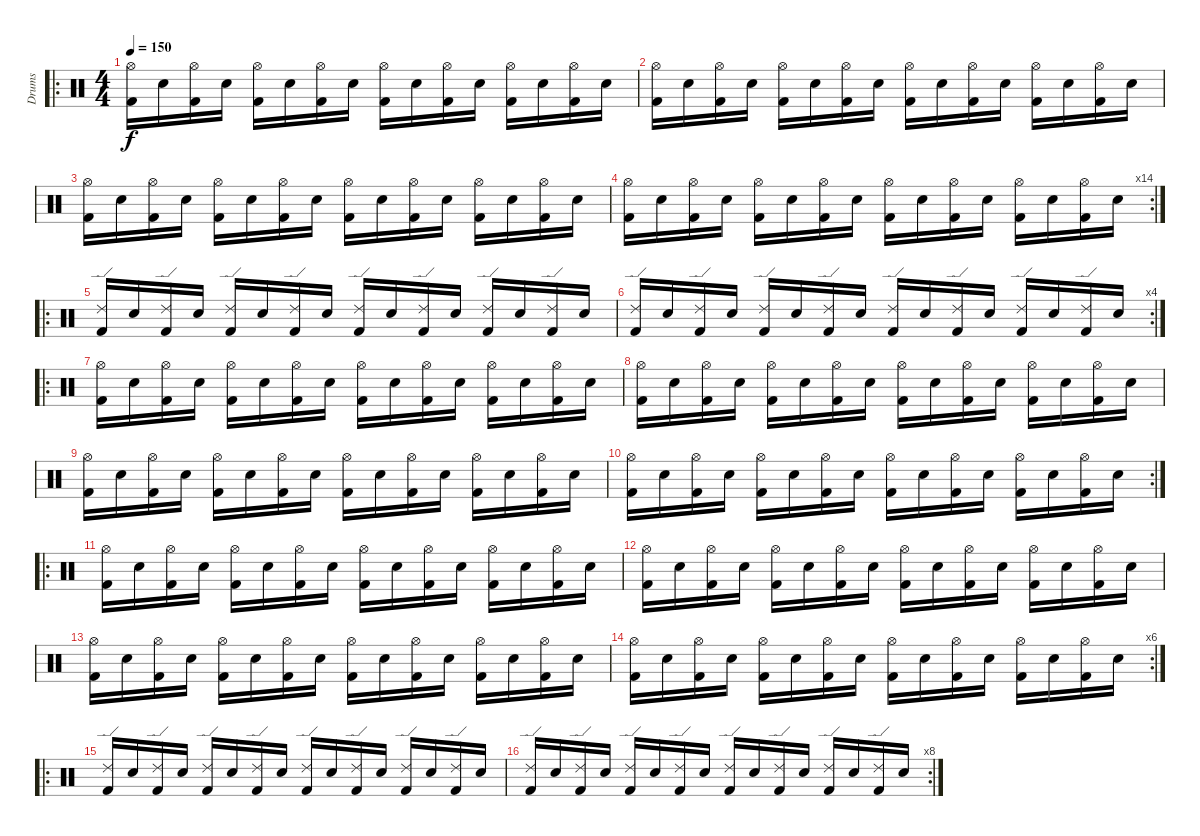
\track ("Drums" "Drums") {instrument percussion}
\staff {score}
\articulation defaults
\ro
\ts (4 4)
\tempo 150
\clef neutral
\ks c
("Hi-Hat (open)" "Kick (hit) 2").16{dy f} "Electric Snare (hit)".16 ("Hi-Hat (open)" "Kick (hit) 2").16 "Electric Snare (hit)".16 ("Hi-Hat (open)" "Kick (hit) 2").16 "Electric Snare (hit)".16 ("Hi-Hat (open)" "Kick (hit) 2").16 "Electric Snare (hit)".16 ("Hi-Hat (open)" "Kick (hit) 2").16 "Electric Snare (hit)".16 ("Hi-Hat (open)" "Kick (hit) 2").16 "Electric Snare (hit)".16 ("Hi-Hat (open)" "Kick (hit) 2").16 "Electric Snare (hit)".16 ("Hi-Hat (open)" "Kick (hit) 2").16 "Electric Snare (hit)".16 |
("Hi-Hat (open)" "Kick (hit) 2").16 "Electric Snare (hit)".16 ("Hi-Hat (open)" "Kick (hit) 2").16 "Electric Snare (hit)".16 ("Hi-Hat (open)" "Kick (hit) 2").16 "Electric Snare (hit)".16 ("Hi-Hat (open)" "Kick (hit) 2").16 "Electric Snare (hit)".16 ("Hi-Hat (open)" "Kick (hit) 2").16 "Electric Snare (hit)".16 ("Hi-Hat (open)" "Kick (hit) 2").16 "Electric Snare (hit)".16 ("Hi-Hat (open)" "Kick (hit) 2").16 "Electric Snare (hit)".16 ("Hi-Hat (open)" "Kick (hit) 2").16 "Electric Snare (hit)".16 |
("Hi-Hat (open)" "Kick (hit) 2").16 "Electric Snare (hit)".16 ("Hi-Hat (open)" "Kick (hit) 2").16 "Electric Snare (hit)".16 ("Hi-Hat (open)" "Kick (hit) 2").16 "Electric Snare (hit)".16 ("Hi-Hat (open)" "Kick (hit) 2").16 "Electric Snare (hit)".16 ("Hi-Hat (open)" "Kick (hit) 2").16 "Electric Snare (hit)".16 ("Hi-Hat (open)" "Kick (hit) 2").16 "Electric Snare (hit)".16 ("Hi-Hat (open)" "Kick (hit) 2").16 "Electric Snare (hit)".16 ("Hi-Hat (open)" "Kick (hit) 2").16 "Electric Snare (hit)".16 |
\rc 14
("Hi-Hat (open)" "Kick (hit) 2").16 "Electric Snare (hit)".16 ("Hi-Hat (open)" "Kick (hit) 2").16 "Electric Snare (hit)".16 ("Hi-Hat (open)" "Kick (hit) 2").16 "Electric Snare (hit)".16 ("Hi-Hat (open)" "Kick (hit) 2").16 "Electric Snare (hit)".16 ("Hi-Hat (open)" "Kick (hit) 2").16 "Electric Snare (hit)".16 ("Hi-Hat (open)" "Kick (hit) 2").16 "Electric Snare (hit)".16 ("Hi-Hat (open)" "Kick (hit) 2").16 "Electric Snare (hit)".16 ("Hi-Hat (open)" "Kick (hit) 2").16 "Electric Snare (hit)".16 |
\ro
("Ride (edge) 2" "Kick (hit) 2").16 "Electric Snare (hit)".16 ("Ride (edge) 2" "Kick (hit) 2").16 "Electric Snare (hit)".16 ("Ride (edge) 2" "Kick (hit) 2").16 "Electric Snare (hit)".16 ("Ride (edge) 2" "Kick (hit) 2").16 "Electric Snare (hit)".16 ("Ride (edge) 2" "Kick (hit) 2").16 "Electric Snare (hit)".16 ("Ride (edge) 2" "Kick (hit) 2").16 "Electric Snare (hit)".16 ("Ride (edge) 2" "Kick (hit) 2").16 "Electric Snare (hit)".16 ("Ride (edge) 2" "Kick (hit) 2").16 "Electric Snare (hit)".16 |
\rc 4
("Ride (edge) 2" "Kick (hit) 2").16 "Electric Snare (hit)".16 ("Ride (edge) 2" "Kick (hit) 2").16 "Electric Snare (hit)".16 ("Ride (edge) 2" "Kick (hit) 2").16 "Electric Snare (hit)".16 ("Ride (edge) 2" "Kick (hit) 2").16 "Electric Snare (hit)".16 ("Ride (edge) 2" "Kick (hit) 2").16 "Electric Snare (hit)".16 ("Ride (edge) 2" "Kick (hit) 2").16 "Electric Snare (hit)".16 ("Ride (edge) 2" "Kick (hit) 2").16 "Electric Snare (hit)".16 ("Ride (edge) 2" "Kick (hit) 2").16 "Electric Snare (hit)".16 |
\ro
("Hi-Hat (open)" "Kick (hit) 2").16 "Electric Snare (hit)".16 ("Hi-Hat (open)" "Kick (hit) 2").16 "Electric Snare (hit)".16 ("Hi-Hat (open)" "Kick (hit) 2").16 "Electric Snare (hit)".16 ("Hi-Hat (open)" "Kick (hit) 2").16 "Electric Snare (hit)".16 ("Hi-Hat (open)" "Kick (hit) 2").16 "Electric Snare (hit)".16 ("Hi-Hat (open)" "Kick (hit) 2").16 "Electric Snare (hit)".16 ("Hi-Hat (open)" "Kick (hit) 2").16 "Electric Snare (hit)".16 ("Hi-Hat (open)" "Kick (hit) 2").16 "Electric Snare (hit)".16 |
("Hi-Hat (open)" "Kick (hit) 2").16 "Electric Snare (hit)".16 ("Hi-Hat (open)" "Kick (hit) 2").16 "Electric Snare (hit)".16 ("Hi-Hat (open)" "Kick (hit) 2").16 "Electric Snare (hit)".16 ("Hi-Hat (open)" "Kick (hit) 2").16 "Electric Snare (hit)".16 ("Hi-Hat (open)" "Kick (hit) 2").16 "Electric Snare (hit)".16 ("Hi-Hat (open)" "Kick (hit) 2").16 "Electric Snare (hit)".16 ("Hi-Hat (open)" "Kick (hit) 2").16 "Electric Snare (hit)".16 ("Hi-Hat (open)" "Kick (hit) 2").16 "Electric Snare (hit)".16 |
("Hi-Hat (open)" "Kick (hit) 2").16 "Electric Snare (hit)".16 ("Hi-Hat (open)" "Kick (hit) 2").16 "Electric Snare (hit)".16 ("Hi-Hat (open)" "Kick (hit) 2").16 "Electric Snare (hit)".16 ("Hi-Hat (open)" "Kick (hit) 2").16 "Electric Snare (hit)".16 ("Hi-Hat (open)" "Kick (hit) 2").16 "Electric Snare (hit)".16 ("Hi-Hat (open)" "Kick (hit) 2").16 "Electric Snare (hit)".16 ("Hi-Hat (open)" "Kick (hit) 2").16 "Electric Snare (hit)".16 ("Hi-Hat (open)" "Kick (hit) 2").16 "Electric Snare (hit)".16 |
\rc 2
("Hi-Hat (open)" "Kick (hit) 2").16 "Electric Snare (hit)".16 ("Hi-Hat (open)" "Kick (hit) 2").16 "Electric Snare (hit)".16 ("Hi-Hat (open)" "Kick (hit) 2").16 "Electric Snare (hit)".16 ("Hi-Hat (open)" "Kick (hit) 2").16 "Electric Snare (hit)".16 ("Hi-Hat (open)" "Kick (hit) 2").16 "Electric Snare (hit)".16 ("Hi-Hat (open)" "Kick (hit) 2").16 "Electric Snare (hit)".16 ("Hi-Hat (open)" "Kick (hit) 2").16 "Electric Snare (hit)".16 ("Hi-Hat (open)" "Kick (hit) 2").16 "Electric Snare (hit)".16 |
\ro
("Hi-Hat (open)" "Kick (hit) 2").16 "Electric Snare (hit)".16 ("Hi-Hat (open)" "Kick (hit) 2").16 "Electric Snare (hit)".16 ("Hi-Hat (open)" "Kick (hit) 2").16 "Electric Snare (hit)".16 ("Hi-Hat (open)" "Kick (hit) 2").16 "Electric Snare (hit)".16 ("Hi-Hat (open)" "Kick (hit) 2").16 "Electric Snare (hit)".16 ("Hi-Hat (open)" "Kick (hit) 2").16 "Electric Snare (hit)".16 ("Hi-Hat (open)" "Kick (hit) 2").16 "Electric Snare (hit)".16 ("Hi-Hat (open)" "Kick (hit) 2").16 "Electric Snare (hit)".16 |
("Hi-Hat (open)" "Kick (hit) 2").16 "Electric Snare (hit)".16 ("Hi-Hat (open)" "Kick (hit) 2").16 "Electric Snare (hit)".16 ("Hi-Hat (open)" "Kick (hit) 2").16 "Electric Snare (hit)".16 ("Hi-Hat (open)" "Kick (hit) 2").16 "Electric Snare (hit)".16 ("Hi-Hat (open)" "Kick (hit) 2").16 "Electric Snare (hit)".16 ("Hi-Hat (open)" "Kick (hit) 2").16 "Electric Snare (hit)".16 ("Hi-Hat (open)" "Kick (hit) 2").16 "Electric Snare (hit)".16 ("Hi-Hat (open)" "Kick (hit) 2").16 "Electric Snare (hit)".16 |
("Hi-Hat (open)" "Kick (hit) 2").16 "Electric Snare (hit)".16 ("Hi-Hat (open)" "Kick (hit) 2").16 "Electric Snare (hit)".16 ("Hi-Hat (open)" "Kick (hit) 2").16 "Electric Snare (hit)".16 ("Hi-Hat (open)" "Kick (hit) 2").16 "Electric Snare (hit)".16 ("Hi-Hat (open)" "Kick (hit) 2").16 "Electric Snare (hit)".16 ("Hi-Hat (open)" "Kick (hit) 2").16 "Electric Snare (hit)".16 ("Hi-Hat (open)" "Kick (hit) 2").16 "Electric Snare (hit)".16 ("Hi-Hat (open)" "Kick (hit) 2").16 "Electric Snare (hit)".16 |
\rc 6
("Hi-Hat (open)" "Kick (hit) 2").16 "Electric Snare (hit)".16 ("Hi-Hat (open)" "Kick (hit) 2").16 "Electric Snare (hit)".16 ("Hi-Hat (open)" "Kick (hit) 2").16 "Electric Snare (hit)".16 ("Hi-Hat (open)" "Kick (hit) 2").16 "Electric Snare (hit)".16 ("Hi-Hat (open)" "Kick (hit) 2").16 "Electric Snare (hit)".16 ("Hi-Hat (open)" "Kick (hit) 2").16 "Electric Snare (hit)".16 ("Hi-Hat (open)" "Kick (hit) 2").16 "Electric Snare (hit)".16 ("Hi-Hat (open)" "Kick (hit) 2").16 "Electric Snare (hit)".16 |
\ro
("Ride (edge) 2" "Kick (hit) 2").16 "Electric Snare (hit)".16 ("Ride (edge) 2" "Kick (hit) 2").16 "Electric Snare (hit)".16 ("Ride (edge) 2" "Kick (hit) 2").16 "Electric Snare (hit)".16 ("Ride (edge) 2" "Kick (hit) 2").16 "Electric Snare (hit)".16 ("Ride (edge) 2" "Kick (hit) 2").16 "Electric Snare (hit)".16 ("Ride (edge) 2" "Kick (hit) 2").16 "Electric Snare (hit)".16 ("Ride (edge) 2" "Kick (hit) 2").16 "Electric Snare (hit)".16 ("Ride (edge) 2" "Kick (hit) 2").16 "Electric Snare (hit)".16 |
\rc 8
("Ride (edge) 2" "Kick (hit) 2").16 "Electric Snare (hit)".16 ("Ride (edge) 2" "Kick (hit) 2").16 "Electric Snare (hit)".16 ("Ride (edge) 2" "Kick (hit) 2").16 "Electric Snare (hit)".16 ("Ride (edge) 2" "Kick (hit) 2").16 "Electric Snare (hit)".16 ("Ride (edge) 2" "Kick (hit) 2").16 "Electric Snare (hit)".16 ("Ride (edge) 2" "Kick (hit) 2").16 "Electric Snare (hit)".16 ("Ride (edge) 2" "Kick (hit) 2").16 "Electric Snare (hit)".16 ("Ride (edge) 2" "Kick (hit) 2").16 "Electric Snare (hit)".16
